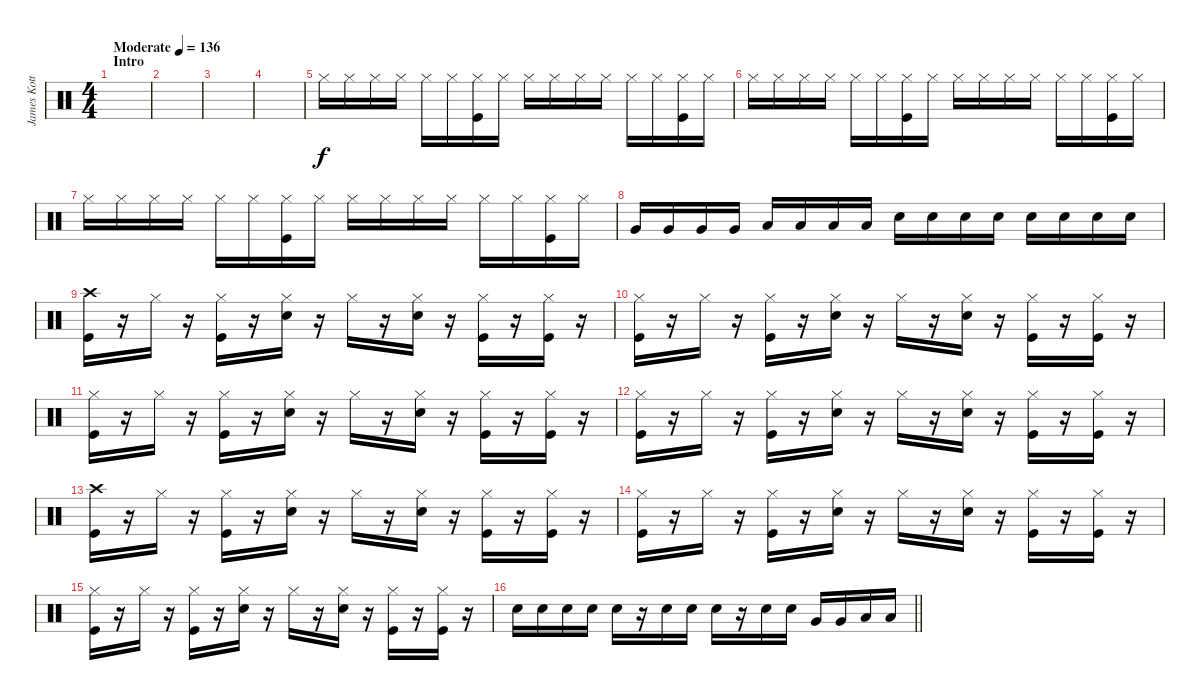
\track ("James Kottak" "James Kott") {instrument percussion}
\staff {score}
\articulation defaults
\ts (4 4)
\section ("" "Intro")
\tempo (136 "Moderate")
\clef neutral
\ks c
|
|
|
|
"Hi-Hat (closed)".16 "Hi-Hat (closed)".16 "Hi-Hat (closed)".16 "Hi-Hat (closed)".16 "Hi-Hat (closed)".16 "Hi-Hat (closed)".16 ("Hi-Hat (closed)" "Kick (hit)").16 "Hi-Hat (closed)".16 "Hi-Hat (closed)".16 "Hi-Hat (closed)".16 "Hi-Hat (closed)".16 "Hi-Hat (closed)".16 "Hi-Hat (closed)".16 "Hi-Hat (closed)".16 ("Hi-Hat (closed)" "Kick (hit)").16 "Hi-Hat (closed)".16 |
"Hi-Hat (closed)".16 "Hi-Hat (closed)".16 "Hi-Hat (closed)".16 "Hi-Hat (closed)".16 "Hi-Hat (closed)".16 "Hi-Hat (closed)".16 ("Hi-Hat (closed)" "Kick (hit)").16 "Hi-Hat (closed)".16 "Hi-Hat (closed)".16 "Hi-Hat (closed)".16 "Hi-Hat (closed)".16 "Hi-Hat (closed)".16 "Hi-Hat (closed)".16 "Hi-Hat (closed)".16 ("Hi-Hat (closed)" "Kick (hit)").16 "Hi-Hat (closed)".16 |
"Hi-Hat (closed)".16 "Hi-Hat (closed)".16 "Hi-Hat (closed)".16 "Hi-Hat (closed)".16 "Hi-Hat (closed)".16 "Hi-Hat (closed)".16 ("Hi-Hat (closed)" "Kick (hit)").16 "Hi-Hat (closed)".16 "Hi-Hat (closed)".16 "Hi-Hat (closed)".16 "Hi-Hat (closed)".16 "Hi-Hat (closed)".16 "Hi-Hat (closed)".16 "Hi-Hat (closed)".16 ("Hi-Hat (closed)" "Kick (hit)").16 "Hi-Hat (closed)".16 |
"Very Low Tom (hit)".16 "Very Low Tom (hit)".16 "Very Low Tom (hit)".16 "Very Low Tom (hit)".16 "Low Floor Tom (hit)".16 "Low Floor Tom (hit)".16 "Low Floor Tom (hit)".16 "Low Floor Tom (hit)".16 "Snare (hit) 2".16 "Snare (hit) 2".16 "Snare (hit) 2".16 "Snare (hit) 2".16 "Snare (hit) 2".16 "Snare (hit) 2".16 "Snare (hit) 2".16 "Snare (hit) 2".16 |
("Crash high (hit)" "Kick (hit)").16 r.16 "Hi-Hat (closed)".16 r.16 ("Hi-Hat (closed)" "Kick (hit)").16 r.16 ("Hi-Hat (closed)" "Snare (hit) 2").16 r.16 "Hi-Hat (closed)".16 r.16 ("Hi-Hat (closed)" "Snare (hit) 2").16 r.16 ("Hi-Hat (closed)" "Kick (hit)").16 r.16 ("Hi-Hat (closed)" "Kick (hit)").16 r.16 |
("Hi-Hat (closed)" "Kick (hit)").16 r.16 "Hi-Hat (closed)".16 r.16 ("Hi-Hat (closed)" "Kick (hit)").16 r.16 ("Hi-Hat (closed)" "Snare (hit) 2").16 r.16 "Hi-Hat (closed)".16 r.16 ("Hi-Hat (closed)" "Snare (hit) 2").16 r.16 ("Hi-Hat (closed)" "Kick (hit)").16 r.16 ("Hi-Hat (closed)" "Kick (hit)").16 r.16 |
("Hi-Hat (closed)" "Kick (hit)").16 r.16 "Hi-Hat (closed)".16 r.16 ("Hi-Hat (closed)" "Kick (hit)").16 r.16 ("Hi-Hat (closed)" "Snare (hit) 2").16 r.16 "Hi-Hat (closed)".16 r.16 ("Hi-Hat (closed)" "Snare (hit) 2").16 r.16 ("Hi-Hat (closed)" "Kick (hit)").16 r.16 ("Hi-Hat (closed)" "Kick (hit)").16 r.16 |
("Hi-Hat (closed)" "Kick (hit)").16 r.16 "Hi-Hat (closed)".16 r.16 ("Hi-Hat (closed)" "Kick (hit)").16 r.16 ("Hi-Hat (closed)" "Snare (hit) 2").16 r.16 "Hi-Hat (closed)".16 r.16 ("Hi-Hat (closed)" "Snare (hit) 2").16 r.16 ("Hi-Hat (closed)" "Kick (hit)").16 r.16 ("Hi-Hat (closed)" "Kick (hit)").16 r.16 |
("Crash high (hit)" "Kick (hit)").16 r.16 "Hi-Hat (closed)".16 r.16 ("Hi-Hat (closed)" "Kick (hit)").16 r.16 ("Hi-Hat (closed)" "Snare (hit) 2").16 r.16 "Hi-Hat (closed)".16 r.16 ("Hi-Hat (closed)" "Snare (hit) 2").16 r.16 ("Hi-Hat (closed)" "Kick (hit)").16 r.16 ("Hi-Hat (closed)" "Kick (hit)").16 r.16 |
("Hi-Hat (closed)" "Kick (hit)").16 r.16 "Hi-Hat (closed)".16 r.16 ("Hi-Hat (closed)" "Kick (hit)").16 r.16 ("Hi-Hat (closed)" "Snare (hit) 2").16 r.16 "Hi-Hat (closed)".16 r.16 ("Hi-Hat (closed)" "Snare (hit) 2").16 r.16 ("Hi-Hat (closed)" "Kick (hit)").16 r.16 ("Hi-Hat (closed)" "Kick (hit)").16 r.16 |
("Hi-Hat (closed)" "Kick (hit)").16 r.16 "Hi-Hat (closed)".16 r.16 ("Hi-Hat (closed)" "Kick (hit)").16 r.16 ("Hi-Hat (closed)" "Snare (hit) 2").16 r.16 "Hi-Hat (closed)".16 r.16 ("Hi-Hat (closed)" "Snare (hit) 2").16 r.16 ("Hi-Hat (closed)" "Kick (hit)").16 r.16 ("Hi-Hat (closed)" "Kick (hit)").16 r.16 |
\barLineRight lightlight "Snare (hit) 2".16 "Snare (hit) 2".16 "Snare (hit) 2".16 "Snare (hit) 2".16 "Snare (hit) 2".16
r.16 "Snare (hit) 2".16 "Snare (hit) 2".16 "Snare (hit) 2".16 r.16 "Snare (hit) 2".16 "Snare (hit) 2".16 "Very Low Tom (hit)".16 "Very Low Tom (hit)".16 "Low Floor Tom (hit)".16 "Low Floor Tom (hit)".16
